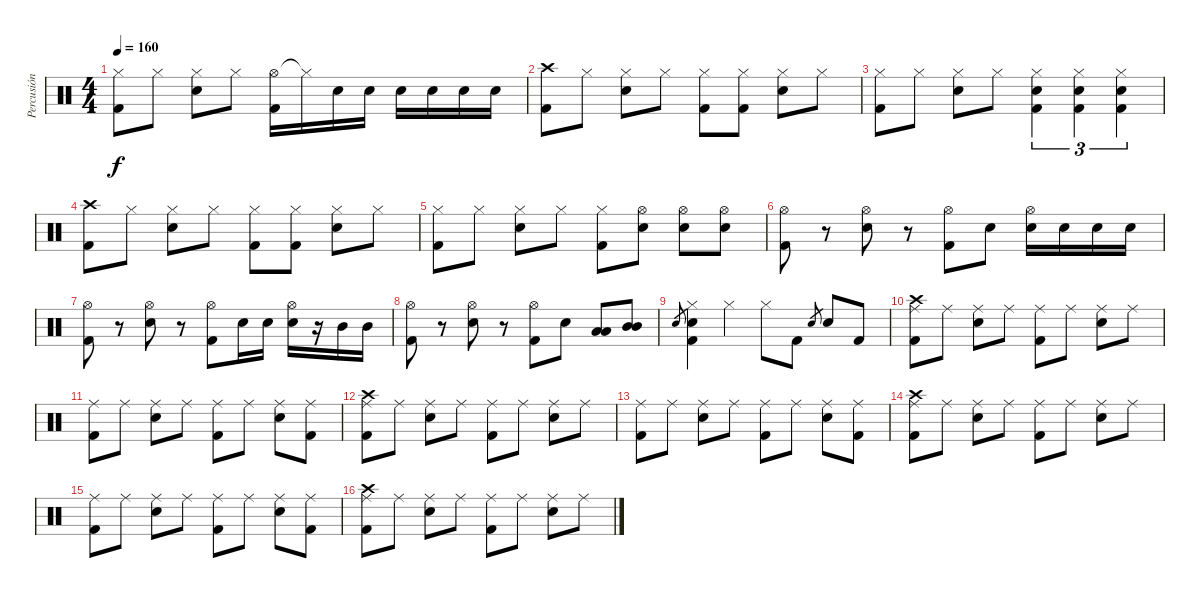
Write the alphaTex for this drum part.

\track ("Percusión" "Percusión") {instrument percussion}
\staff {score}
\articulation defaults
\ts (4 4)
\tempo 160
\clef neutral
\ks c
("Hi-Hat (closed)" "Kick (hit) 2").8{dy f} "Hi-Hat (closed)".8 ("Hi-Hat (closed)" "Snare (hit) 2").8 "Hi-Hat (closed)".8 ("Hi-Hat (open)" "Kick (hit) 2").16 "Hi-Hat (closed)"{t}.16 "Snare (hit) 2".16 "Snare (hit) 2".16 "Snare (hit) 2".16 "Snare (hit) 2".16 "Snare (hit) 2".16 "Snare (hit) 2".16 |
("Crash high (hit)" "Kick (hit) 2").8 "Hi-Hat (closed)".8 ("Hi-Hat (closed)" "Snare (hit) 2").8 "Hi-Hat (closed)".8 ("Hi-Hat (closed)" "Kick (hit) 2").8 ("Hi-Hat (closed)" "Kick (hit) 2").8 ("Hi-Hat (closed)" "Snare (hit) 2").8 "Hi-Hat (closed)".8 |
("Hi-Hat (closed)" "Kick (hit) 2").8 "Hi-Hat (closed)".8 ("Hi-Hat (closed)" "Snare (hit) 2").8 "Hi-Hat (closed)".8 ("Hi-Hat (closed)" "Snare (hit) 2" "Kick (hit) 2").4{tu (3 2)} ("Hi-Hat (closed)" "Snare (hit) 2" "Kick (hit) 2").4{tu (3 2)} ("Hi-Hat (closed)" "Snare (hit) 2" "Kick (hit) 2").4{tu (3 2)} |
("Crash high (hit)" "Kick (hit) 2").8 "Hi-Hat (closed)".8 ("Hi-Hat (closed)" "Snare (hit) 2").8 "Hi-Hat (closed)".8 ("Hi-Hat (closed)" "Kick (hit) 2").8 ("Hi-Hat (closed)" "Kick (hit) 2").8 ("Hi-Hat (closed)" "Snare (hit) 2").8 "Hi-Hat (closed)".8 |
("Hi-Hat (closed)" "Kick (hit) 2").8 "Hi-Hat (closed)".8 ("Hi-Hat (closed)" "Snare (hit) 2").8 "Hi-Hat (closed)".8 ("Hi-Hat (closed)" "Kick (hit) 2").8 ("Hi-Hat (open)" "Snare (hit) 2").8 ("Hi-Hat (open)" "Snare (hit) 2").8 ("Hi-Hat (open)" "Snare (hit) 2").8 |
("Hi-Hat (open)" "Kick (hit) 2").8 r.8 ("Hi-Hat (open)" "Snare (hit) 2").8 r.8 ("Hi-Hat (open)" "Kick (hit) 2").8 "Snare (hit) 2".8 ("Hi-Hat (open)" "Snare (hit) 2").16 "Snare (hit) 2".16 "Snare (hit) 2".16 "Snare (hit) 2".16 |
("Hi-Hat (open)" "Kick (hit) 2").8 r.8 ("Hi-Hat (open)" "Snare (hit) 2").8 r.8 ("Hi-Hat (open)" "Kick (hit) 2").8 "Snare (hit) 2".16 "Snare (hit) 2".16 ("Hi-Hat (open)" "Snare (hit) 2").16 r.16 "Mid Tom (hit)".16 "Mid Tom (hit)".16 |
("Hi-Hat (open)" "Kick (hit) 2").8 r.8 ("Hi-Hat (open)" "Snare (hit) 2").8 r.8 ("Hi-Hat (open)" "Kick (hit) 2").8 "Snare (hit) 2".8 ("Low Tom (hit)" "Low Tom (hit)").8 ("Mid Tom (hit)" "Mid Tom (hit)").8 |
"Snare (hit) 2".8{gr} ("Hi-Hat (closed)" "Snare (hit) 2" "Kick (hit) 2").4 "Hi-Hat (closed)".4 "Hi-Hat (closed)".8 "Kick (hit) 2".8 "Snare (hit) 2".8{gr} "Snare (hit) 2".8 "Kick (hit) 2".8 |
("Crash high (hit)" "Ride (middle)" "Kick (hit) 2").8 "Ride (middle)".8 ("Ride (middle)" "Snare (hit) 2").8 "Ride (middle)".8 ("Ride (middle)" "Kick (hit) 2").8 "Ride (middle)".8 ("Ride (middle)" "Snare (hit) 2").8 "Ride (middle)".8 |
("Ride (middle)" "Kick (hit) 2").8 "Ride (middle)".8 ("Ride (middle)" "Snare (hit) 2").8 "Ride (middle)".8 ("Ride (middle)" "Kick (hit) 2").8 "Ride (middle)".8 ("Ride (middle)" "Snare (hit) 2").8 ("Ride (middle)" "Kick (hit) 2").8 |
("Crash high (hit)" "Ride (middle)" "Kick (hit) 2").8 "Ride (middle)".8 ("Ride (middle)" "Snare (hit) 2").8 "Ride (middle)".8 ("Ride (middle)" "Kick (hit) 2").8 "Ride (middle)".8 ("Ride (middle)" "Snare (hit) 2").8 "Ride (middle)".8 |
("Ride (middle)" "Kick (hit) 2").8 "Ride (middle)".8 ("Ride (middle)" "Snare (hit) 2").8 "Ride (middle)".8 ("Ride (middle)" "Kick (hit) 2").8 "Ride (middle)".8 ("Ride (middle)" "Snare (hit) 2").8 ("Ride (middle)" "Kick (hit) 2").8 |
("Crash high (hit)" "Ride (middle)" "Kick (hit) 2").8 "Ride (middle)".8 ("Ride (middle)" "Snare (hit) 2").8 "Ride (middle)".8 ("Ride (middle)" "Kick (hit) 2").8 "Ride (middle)".8 ("Ride (middle)" "Snare (hit) 2").8 "Ride (middle)".8 |
("Ride (middle)" "Kick (hit) 2").8 "Ride (middle)".8 ("Ride (middle)" "Snare (hit) 2").8 "Ride (middle)".8 ("Ride (middle)" "Kick (hit) 2").8 "Ride (middle)".8 ("Ride (middle)" "Snare (hit) 2").8 ("Ride (middle)" "Kick (hit) 2").8 |
("Crash high (hit)" "Ride (middle)" "Kick (hit) 2").8 "Ride (middle)".8 ("Ride (middle)" "Snare (hit) 2").8 "Ride (middle)".8 ("Ride (middle)" "Kick (hit) 2").8 "Ride (middle)".8 ("Ride (middle)" "Snare (hit) 2").8 "Ride (middle)".8
